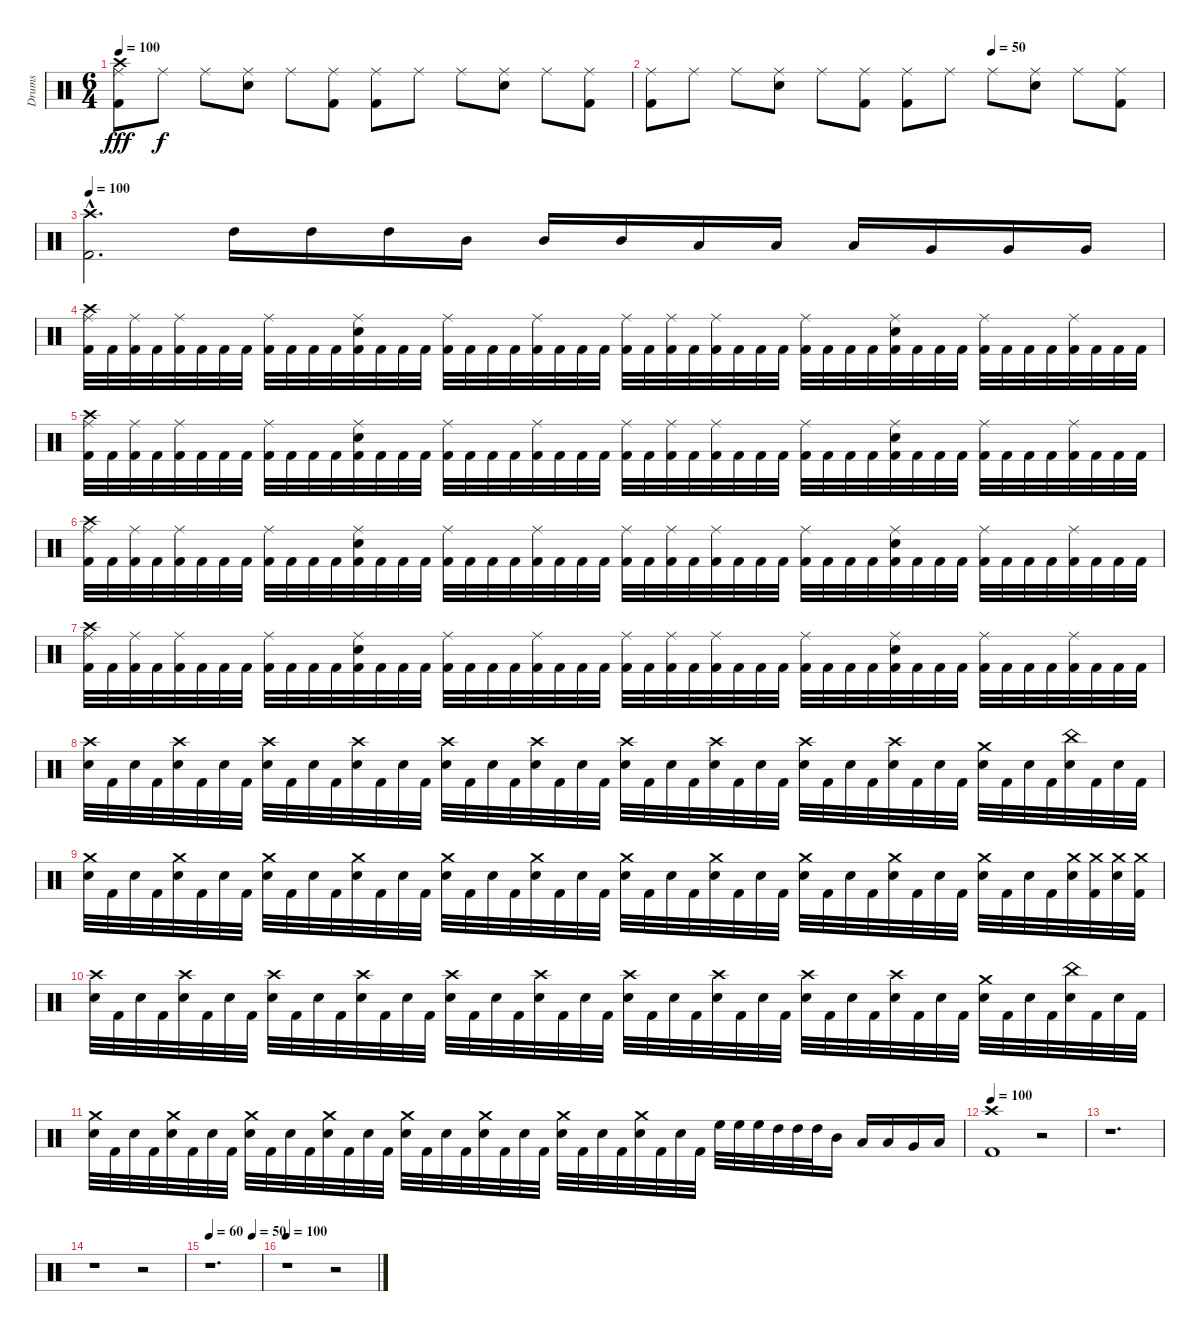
\track ("Drums" "Drums") {instrument percussion}
\staff {score}
\articulation defaults
\ts (6 4)
\tempo 100
\clef neutral
\ks c
("Crash high (hit)" "Ride (middle)" "Kick (hit) 2").8{dy fff} "Ride (middle)".8{dy f} "Ride (middle)".8 ("Ride (middle)" "Electric Snare (hit)").8 "Ride (middle)".8 ("Ride (middle)" "Kick (hit) 2").8 ("Ride (middle)" "Kick (hit) 2").8 "Ride (middle)".8 "Ride (middle)".8 ("Ride (middle)" "Electric Snare (hit)").8 "Ride (middle)".8 ("Ride (middle)" "Kick (hit) 2").8 |
\tempo (50 0.6666666666666666)
("Ride (middle)" "Kick (hit) 2").8 "Ride (middle)".8 "Ride (middle)".8 ("Ride (middle)" "Electric Snare (hit)").8 "Ride (middle)".8 ("Ride (middle)" "Kick (hit) 2").8 ("Ride (middle)" "Kick (hit) 2").8 "Ride (middle)".8 "Ride (middle)".8 ("Ride (middle)" "Electric Snare (hit)").8 "Ride (middle)".8 ("Ride (middle)" "Kick (hit) 2").8 |
\tempo 100
("Crash high (hit)"{hac} "Kick (hit) 2"{hac}).2{d} "High Tom (hit)".16 "High Tom (hit)".16 "High Tom (hit)".16 "Mid Tom (hit)".16 "Mid Tom (hit)".16 "Mid Tom (hit)".16 "Low Tom (hit)".16 "Low Tom (hit)".16 "Low Tom (hit)".16 "Very Low Tom (hit)".16 "Very Low Tom (hit)".16 "Very Low Tom (hit)".16 |
("Kick (hit) 2" "Crash high (hit)" "Ride (middle)").32 "Kick (hit) 2".32 ("Kick (hit) 2" "Ride (middle)").32 "Kick (hit) 2".32 ("Kick (hit) 2" "Ride (middle)").32 "Kick (hit) 2".32 "Kick (hit) 2".32 "Kick (hit) 2".32 ("Kick (hit) 2" "Ride (middle)").32 "Kick (hit) 2".32 "Kick (hit) 2".32 "Kick (hit) 2".32 ("Kick (hit) 2" "Electric Snare (hit)" "Ride (middle)").32 "Kick (hit) 2".32 "Kick (hit) 2".32 "Kick (hit) 2".32 ("Kick (hit) 2" "Ride (middle)").32 "Kick (hit) 2".32 "Kick (hit) 2".32 "Kick (hit) 2".32 ("Kick (hit) 2" "Ride (middle)").32 "Kick (hit) 2".32 "Kick (hit) 2".32 "Kick (hit) 2".32 ("Kick (hit) 2" "Ride (middle)").32 "Kick (hit) 2".32 ("Kick (hit) 2" "Ride (middle)").32 "Kick (hit) 2".32 ("Kick (hit) 2" "Ride (middle)").32 "Kick (hit) 2".32 "Kick (hit) 2".32 "Kick (hit) 2".32 ("Kick (hit) 2" "Ride (middle)").32 "Kick (hit) 2".32 "Kick (hit) 2".32 "Kick (hit) 2".32 ("Kick (hit) 2" "Electric Snare (hit)" "Ride (middle)").32 "Kick (hit) 2".32 "Kick (hit) 2".32 "Kick (hit) 2".32 ("Kick (hit) 2" "Ride (middle)").32 "Kick (hit) 2".32 "Kick (hit) 2".32 "Kick (hit) 2".32 ("Kick (hit) 2" "Ride (middle)").32 "Kick (hit) 2".32 "Kick (hit) 2".32 "Kick (hit) 2".32 |
("Kick (hit) 2" "Crash high (hit)" "Ride (middle)").32 "Kick (hit) 2".32 ("Kick (hit) 2" "Ride (middle)").32 "Kick (hit) 2".32 ("Kick (hit) 2" "Ride (middle)").32 "Kick (hit) 2".32 "Kick (hit) 2".32 "Kick (hit) 2".32 ("Kick (hit) 2" "Ride (middle)").32 "Kick (hit) 2".32 "Kick (hit) 2".32 "Kick (hit) 2".32 ("Kick (hit) 2" "Electric Snare (hit)" "Ride (middle)").32 "Kick (hit) 2".32 "Kick (hit) 2".32 "Kick (hit) 2".32 ("Kick (hit) 2" "Ride (middle)").32 "Kick (hit) 2".32 "Kick (hit) 2".32 "Kick (hit) 2".32 ("Kick (hit) 2" "Ride (middle)").32 "Kick (hit) 2".32 "Kick (hit) 2".32 "Kick (hit) 2".32 ("Kick (hit) 2" "Ride (middle)").32 "Kick (hit) 2".32 ("Kick (hit) 2" "Ride (middle)").32 "Kick (hit) 2".32 ("Kick (hit) 2" "Ride (middle)").32 "Kick (hit) 2".32 "Kick (hit) 2".32 "Kick (hit) 2".32 ("Kick (hit) 2" "Ride (middle)").32 "Kick (hit) 2".32 "Kick (hit) 2".32 "Kick (hit) 2".32 ("Kick (hit) 2" "Electric Snare (hit)" "Ride (middle)").32 "Kick (hit) 2".32 "Kick (hit) 2".32 "Kick (hit) 2".32 ("Kick (hit) 2" "Ride (middle)").32 "Kick (hit) 2".32 "Kick (hit) 2".32 "Kick (hit) 2".32 ("Kick (hit) 2" "Ride (middle)").32 "Kick (hit) 2".32 "Kick (hit) 2".32 "Kick (hit) 2".32 |
("Kick (hit) 2" "Crash high (hit)" "Ride (middle)").32 "Kick (hit) 2".32 ("Kick (hit) 2" "Ride (middle)").32 "Kick (hit) 2".32 ("Kick (hit) 2" "Ride (middle)").32 "Kick (hit) 2".32 "Kick (hit) 2".32 "Kick (hit) 2".32 ("Kick (hit) 2" "Ride (middle)").32 "Kick (hit) 2".32 "Kick (hit) 2".32 "Kick (hit) 2".32 ("Kick (hit) 2" "Electric Snare (hit)" "Ride (middle)").32 "Kick (hit) 2".32 "Kick (hit) 2".32 "Kick (hit) 2".32 ("Kick (hit) 2" "Ride (middle)").32 "Kick (hit) 2".32 "Kick (hit) 2".32 "Kick (hit) 2".32 ("Kick (hit) 2" "Ride (middle)").32 "Kick (hit) 2".32 "Kick (hit) 2".32 "Kick (hit) 2".32 ("Kick (hit) 2" "Ride (middle)").32 "Kick (hit) 2".32 ("Kick (hit) 2" "Ride (middle)").32 "Kick (hit) 2".32 ("Kick (hit) 2" "Ride (middle)").32 "Kick (hit) 2".32 "Kick (hit) 2".32 "Kick (hit) 2".32 ("Kick (hit) 2" "Ride (middle)").32 "Kick (hit) 2".32 "Kick (hit) 2".32 "Kick (hit) 2".32 ("Kick (hit) 2" "Electric Snare (hit)" "Ride (middle)").32 "Kick (hit) 2".32 "Kick (hit) 2".32 "Kick (hit) 2".32 ("Kick (hit) 2" "Ride (middle)").32 "Kick (hit) 2".32 "Kick (hit) 2".32 "Kick (hit) 2".32 ("Kick (hit) 2" "Ride (middle)").32 "Kick (hit) 2".32 "Kick (hit) 2".32 "Kick (hit) 2".32 |
("Kick (hit) 2" "Crash high (hit)" "Ride (middle)").32 "Kick (hit) 2".32 ("Kick (hit) 2" "Ride (middle)").32 "Kick (hit) 2".32 ("Kick (hit) 2" "Ride (middle)").32 "Kick (hit) 2".32 "Kick (hit) 2".32 "Kick (hit) 2".32 ("Kick (hit) 2" "Ride (middle)").32 "Kick (hit) 2".32 "Kick (hit) 2".32 "Kick (hit) 2".32 ("Kick (hit) 2" "Electric Snare (hit)" "Ride (middle)").32 "Kick (hit) 2".32 "Kick (hit) 2".32 "Kick (hit) 2".32 ("Kick (hit) 2" "Ride (middle)").32 "Kick (hit) 2".32 "Kick (hit) 2".32 "Kick (hit) 2".32 ("Kick (hit) 2" "Ride (middle)").32 "Kick (hit) 2".32 "Kick (hit) 2".32 "Kick (hit) 2".32 ("Kick (hit) 2" "Ride (middle)").32 "Kick (hit) 2".32 ("Kick (hit) 2" "Ride (middle)").32 "Kick (hit) 2".32 ("Kick (hit) 2" "Ride (middle)").32 "Kick (hit) 2".32 "Kick (hit) 2".32 "Kick (hit) 2".32 ("Kick (hit) 2" "Ride (middle)").32 "Kick (hit) 2".32 "Kick (hit) 2".32 "Kick (hit) 2".32 ("Kick (hit) 2" "Electric Snare (hit)" "Ride (middle)").32 "Kick (hit) 2".32 "Kick (hit) 2".32 "Kick (hit) 2".32 ("Kick (hit) 2" "Ride (middle)").32 "Kick (hit) 2".32 "Kick (hit) 2".32 "Kick (hit) 2".32 ("Kick (hit) 2" "Ride (middle)").32 "Kick (hit) 2".32 "Kick (hit) 2".32 "Kick (hit) 2".32 |
("Electric Snare (hit)" "Crash high (hit)").32 "Kick (hit) 2".32 "Electric Snare (hit)".32 "Kick (hit) 2".32 ("Electric Snare (hit)" "Crash high (hit)").32 "Kick (hit) 2".32 "Electric Snare (hit)".32 "Kick (hit) 2".32 ("Electric Snare (hit)" "Crash high (hit)").32 "Kick (hit) 2".32 "Electric Snare (hit)".32 "Kick (hit) 2".32 ("Electric Snare (hit)" "Crash high (hit)").32 "Kick (hit) 2".32 "Electric Snare (hit)".32 "Kick (hit) 2".32 ("Electric Snare (hit)" "Crash high (hit)").32 "Kick (hit) 2".32 "Electric Snare (hit)".32 "Kick (hit) 2".32 ("Electric Snare (hit)" "Crash high (hit)").32 "Kick (hit) 2".32 "Electric Snare (hit)".32 "Kick (hit) 2".32 ("Electric Snare (hit)" "Crash high (hit)").32 "Kick (hit) 2".32 "Electric Snare (hit)".32 "Kick (hit) 2".32 ("Electric Snare (hit)" "Crash high (hit)").32 "Kick (hit) 2".32 "Electric Snare (hit)".32 "Kick (hit) 2".32 ("Electric Snare (hit)" "Crash high (hit)").32 "Kick (hit) 2".32 "Electric Snare (hit)".32 "Kick (hit) 2".32 ("Electric Snare (hit)" "Crash high (hit)").32 "Kick (hit) 2".32 "Electric Snare (hit)".32 "Kick (hit) 2".32 ("Electric Snare (hit)" "Crash medium (hit)").32 "Kick (hit) 2".32 "Electric Snare (hit)".32 "Kick (hit) 2".32 ("Electric Snare (hit)" "China (hit)").32 "Kick (hit) 2".32 "Electric Snare (hit)".32 "Kick (hit) 2".32 |
("Electric Snare (hit)" "Crash medium (hit)").32 "Kick (hit) 2".32 "Electric Snare (hit)".32 "Kick (hit) 2".32 ("Electric Snare (hit)" "Crash medium (hit)").32 "Kick (hit) 2".32 "Electric Snare (hit)".32 "Kick (hit) 2".32 ("Electric Snare (hit)" "Crash medium (hit)").32 "Kick (hit) 2".32 "Electric Snare (hit)".32 "Kick (hit) 2".32 ("Electric Snare (hit)" "Crash medium (hit)").32 "Kick (hit) 2".32 "Electric Snare (hit)".32 "Kick (hit) 2".32 ("Electric Snare (hit)" "Crash medium (hit)").32 "Kick (hit) 2".32 "Electric Snare (hit)".32 "Kick (hit) 2".32 ("Electric Snare (hit)" "Crash medium (hit)").32 "Kick (hit) 2".32 "Electric Snare (hit)".32 "Kick (hit) 2".32 ("Electric Snare (hit)" "Crash medium (hit)").32 "Kick (hit) 2".32 "Electric Snare (hit)".32 "Kick (hit) 2".32 ("Electric Snare (hit)" "Crash medium (hit)").32 "Kick (hit) 2".32 "Electric Snare (hit)".32 "Kick (hit) 2".32 ("Electric Snare (hit)" "Crash medium (hit)").32 "Kick (hit) 2".32 "Electric Snare (hit)".32 "Kick (hit) 2".32 ("Electric Snare (hit)" "Crash medium (hit)").32 "Kick (hit) 2".32 "Electric Snare (hit)".32 "Kick (hit) 2".32 ("Electric Snare (hit)" "Crash medium (hit)").32 "Kick (hit) 2".32 "Electric Snare (hit)".32 "Kick (hit) 2".32 ("Electric Snare (hit)" "Crash medium (hit)").32 ("Kick (hit) 2" "Crash medium (hit)").32 ("Electric Snare (hit)" "Crash medium (hit)").32 ("Kick (hit) 2" "Crash medium (hit)").32 |
("Electric Snare (hit)" "Crash high (hit)").32 "Kick (hit) 2".32 "Electric Snare (hit)".32 "Kick (hit) 2".32 ("Electric Snare (hit)" "Crash high (hit)").32 "Kick (hit) 2".32 "Electric Snare (hit)".32 "Kick (hit) 2".32 ("Electric Snare (hit)" "Crash high (hit)").32 "Kick (hit) 2".32 "Electric Snare (hit)".32 "Kick (hit) 2".32 ("Electric Snare (hit)" "Crash high (hit)").32 "Kick (hit) 2".32 "Electric Snare (hit)".32 "Kick (hit) 2".32 ("Electric Snare (hit)" "Crash high (hit)").32 "Kick (hit) 2".32 "Electric Snare (hit)".32 "Kick (hit) 2".32 ("Electric Snare (hit)" "Crash high (hit)").32 "Kick (hit) 2".32 "Electric Snare (hit)".32 "Kick (hit) 2".32 ("Electric Snare (hit)" "Crash high (hit)").32 "Kick (hit) 2".32 "Electric Snare (hit)".32 "Kick (hit) 2".32 ("Electric Snare (hit)" "Crash high (hit)").32 "Kick (hit) 2".32 "Electric Snare (hit)".32 "Kick (hit) 2".32 ("Electric Snare (hit)" "Crash high (hit)").32 "Kick (hit) 2".32 "Electric Snare (hit)".32 "Kick (hit) 2".32 ("Electric Snare (hit)" "Crash high (hit)").32 "Kick (hit) 2".32 "Electric Snare (hit)".32 "Kick (hit) 2".32 ("Electric Snare (hit)" "Crash medium (hit)").32 "Kick (hit) 2".32 "Electric Snare (hit)".32 "Kick (hit) 2".32 ("Electric Snare (hit)" "China (hit)").32 "Kick (hit) 2".32 "Electric Snare (hit)".32 "Kick (hit) 2".32 |
("Electric Snare (hit)" "Crash medium (hit)").32 "Kick (hit) 2".32 "Electric Snare (hit)".32 "Kick (hit) 2".32 ("Electric Snare (hit)" "Crash medium (hit)").32 "Kick (hit) 2".32 "Electric Snare (hit)".32 "Kick (hit) 2".32 ("Electric Snare (hit)" "Crash medium (hit)").32 "Kick (hit) 2".32 "Electric Snare (hit)".32 "Kick (hit) 2".32 ("Electric Snare (hit)" "Crash medium (hit)").32 "Kick (hit) 2".32 "Electric Snare (hit)".32 "Kick (hit) 2".32 ("Electric Snare (hit)" "Crash medium (hit)").32 "Kick (hit) 2".32 "Electric Snare (hit)".32 "Kick (hit) 2".32 ("Electric Snare (hit)" "Crash medium (hit)").32 "Kick (hit) 2".32 "Electric Snare (hit)".32 "Kick (hit) 2".32 ("Electric Snare (hit)" "Crash medium (hit)").32 "Kick (hit) 2".32 "Electric Snare (hit)".32 "Kick (hit) 2".32 ("Electric Snare (hit)" "Crash medium (hit)").32 "Kick (hit) 2".32 "Electric Snare (hit)".32 "Kick (hit) 2".32 "High Floor Tom (hit)".32 "High Floor Tom (hit)".32 "High Floor Tom (hit)".32 "High Tom (hit)".32 "High Tom (hit)".32 "High Tom (hit)".32 "Mid Tom (hit)".16 "Low Tom (hit)".16 "Low Tom (hit)".16 "Very Low Tom (hit)".16 "Low Floor Tom (hit)".16 |
\tempo 100
("Kick (hit) 2" "Crash high (hit)").1 r.2 |
r.1{d} |
r.1 r.2 |
\tempo 60
\tempo (50 0.8333333333333334)
r.1{d} |
\tempo 100
r.1 r.2
